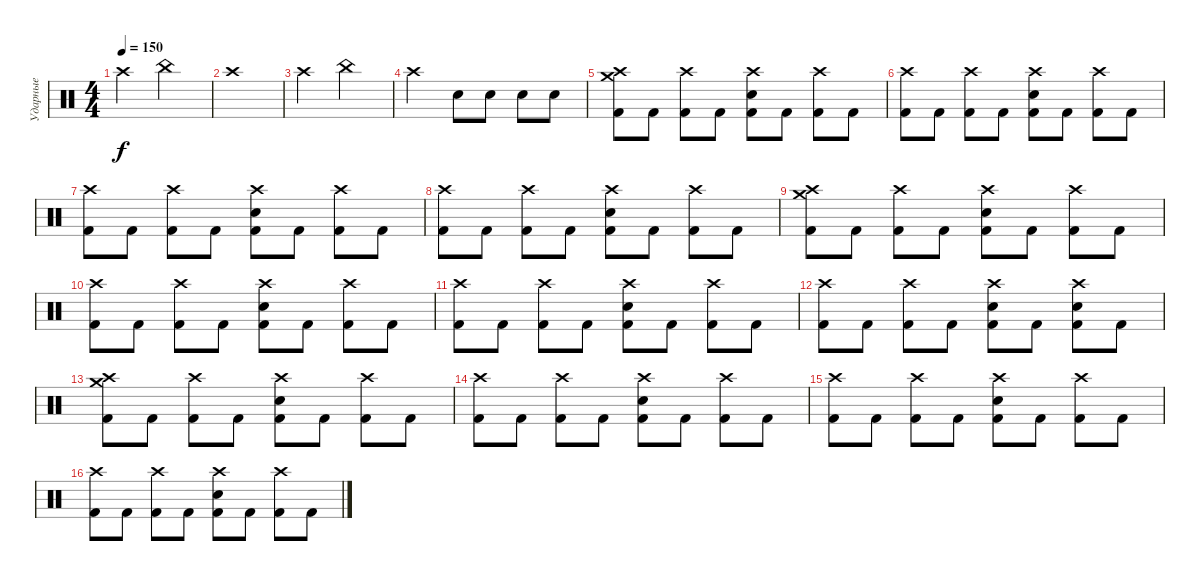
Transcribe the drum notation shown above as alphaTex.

\track ("Ударные" "Ударные") {instrument percussion}
\staff {score}
\articulation defaults
\ts (4 4)
\tempo 150
\clef neutral
\ks c "Crash high (hit)".2{dy f} "China (hit)".2
|
"Crash high (hit)".1 |
"Crash high (hit)".2 "China (hit)".2 |
"Crash high (hit)".2 "Electric Snare (hit)".8 "Electric Snare (hit)".8 "Electric Snare (hit)".8 "Electric Snare (hit)".8 |
("Crash high (hit)" "Crash medium (hit)" "Kick (hit) 2").8 "Kick (hit) 2".8 ("Crash high (hit)" "Kick (hit) 2").8 "Kick (hit) 2".8 ("Crash high (hit)" "Electric Snare (hit)" "Kick (hit) 2").8 "Kick (hit) 2".8 ("Crash high (hit)" "Kick (hit) 2").8 "Kick (hit) 2".8 |
("Crash high (hit)" "Kick (hit) 2").8 "Kick (hit) 2".8 ("Crash high (hit)" "Kick (hit) 2").8 "Kick (hit) 2".8 ("Crash high (hit)" "Electric Snare (hit)" "Kick (hit) 2").8 "Kick (hit) 2".8 ("Crash high (hit)" "Kick (hit) 2").8 "Kick (hit) 2".8 |
("Crash high (hit)" "Kick (hit) 2").8 "Kick (hit) 2".8 ("Crash high (hit)" "Kick (hit) 2").8 "Kick (hit) 2".8 ("Crash high (hit)" "Electric Snare (hit)" "Kick (hit) 2").8 "Kick (hit) 2".8 ("Crash high (hit)" "Kick (hit) 2").8 "Kick (hit) 2".8 |
("Crash high (hit)" "Kick (hit) 2").8 "Kick (hit) 2".8 ("Crash high (hit)" "Kick (hit) 2").8 "Kick (hit) 2".8 ("Crash high (hit)" "Electric Snare (hit)" "Kick (hit) 2").8 "Kick (hit) 2".8 ("Crash high (hit)" "Kick (hit) 2").8 "Kick (hit) 2".8 |
("Crash high (hit)" "Crash medium (hit)" "Kick (hit) 2").8 "Kick (hit) 2".8 ("Crash high (hit)" "Kick (hit) 2").8 "Kick (hit) 2".8 ("Crash high (hit)" "Electric Snare (hit)" "Kick (hit) 2").8 "Kick (hit) 2".8 ("Crash high (hit)" "Kick (hit) 2").8 "Kick (hit) 2".8 |
("Crash high (hit)" "Kick (hit) 2").8 "Kick (hit) 2".8 ("Crash high (hit)" "Kick (hit) 2").8 "Kick (hit) 2".8 ("Crash high (hit)" "Electric Snare (hit)" "Kick (hit) 2").8 "Kick (hit) 2".8 ("Crash high (hit)" "Kick (hit) 2").8 "Kick (hit) 2".8 |
("Crash high (hit)" "Kick (hit) 2").8 "Kick (hit) 2".8 ("Crash high (hit)" "Kick (hit) 2").8 "Kick (hit) 2".8 ("Crash high (hit)" "Electric Snare (hit)" "Kick (hit) 2").8 "Kick (hit) 2".8 ("Crash high (hit)" "Kick (hit) 2").8 "Kick (hit) 2".8 |
("Crash high (hit)" "Kick (hit) 2").8 "Kick (hit) 2".8 ("Crash high (hit)" "Kick (hit) 2").8 "Kick (hit) 2".8 ("Crash high (hit)" "Electric Snare (hit)" "Kick (hit) 2").8 "Kick (hit) 2".8 ("Crash high (hit)" "Electric Snare (hit)" "Kick (hit) 2").8 "Kick (hit) 2".8 |
("Crash high (hit)" "Crash medium (hit)" "Kick (hit) 2").8 "Kick (hit) 2".8 ("Crash high (hit)" "Kick (hit) 2").8 "Kick (hit) 2".8 ("Crash high (hit)" "Electric Snare (hit)" "Kick (hit) 2").8 "Kick (hit) 2".8 ("Crash high (hit)" "Kick (hit) 2").8 "Kick (hit) 2".8 |
("Crash high (hit)" "Kick (hit) 2").8 "Kick (hit) 2".8 ("Crash high (hit)" "Kick (hit) 2").8 "Kick (hit) 2".8 ("Crash high (hit)" "Electric Snare (hit)" "Kick (hit) 2").8 "Kick (hit) 2".8 ("Crash high (hit)" "Kick (hit) 2").8 "Kick (hit) 2".8 |
("Crash high (hit)" "Kick (hit) 2").8 "Kick (hit) 2".8 ("Crash high (hit)" "Kick (hit) 2").8 "Kick (hit) 2".8 ("Crash high (hit)" "Electric Snare (hit)" "Kick (hit) 2").8 "Kick (hit) 2".8 ("Crash high (hit)" "Kick (hit) 2").8 "Kick (hit) 2".8 |
("Crash high (hit)" "Kick (hit) 2").8 "Kick (hit) 2".8 ("Crash high (hit)" "Kick (hit) 2").8 "Kick (hit) 2".8 ("Crash high (hit)" "Electric Snare (hit)" "Kick (hit) 2").8 "Kick (hit) 2".8 ("Crash high (hit)" "Kick (hit) 2").8 "Kick (hit) 2".8
